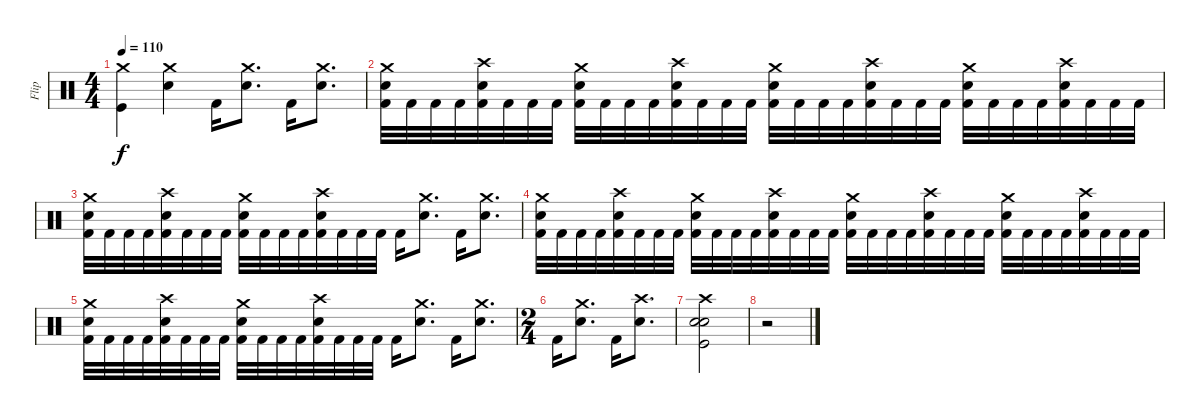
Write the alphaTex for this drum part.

\track ("Flip" "Flip") {instrument percussion}
\staff {score}
\articulation defaults
\ts (4 4)
\tempo 110
\clef neutral
\ks c
("Crash medium (hit)" "Kick (hit)").4{dy f} ("Crash medium (hit)" "Snare (hit) 2").4 "Kick (hit) 2".16 ("Crash medium (hit)" "Snare (hit) 2").8{d} "Kick (hit) 2".16 ("Crash medium (hit)" "Snare (hit) 2").8{d} |
("Crash medium (hit)" "Snare (hit) 2" "Kick (hit) 2").32 "Kick (hit) 2".32 "Kick (hit) 2".32 "Kick (hit) 2".32 ("Crash high (hit)" "Snare (hit) 2" "Kick (hit) 2").32 "Kick (hit) 2".32 "Kick (hit) 2".32 "Kick (hit) 2".32 ("Crash medium (hit)" "Snare (hit) 2" "Kick (hit) 2").32 "Kick (hit) 2".32 "Kick (hit) 2".32 "Kick (hit) 2".32 ("Crash high (hit)" "Snare (hit) 2" "Kick (hit) 2").32 "Kick (hit) 2".32 "Kick (hit) 2".32 "Kick (hit) 2".32 ("Crash medium (hit)" "Snare (hit) 2" "Kick (hit) 2").32 "Kick (hit) 2".32 "Kick (hit) 2".32 "Kick (hit) 2".32 ("Crash high (hit)" "Snare (hit) 2" "Kick (hit) 2").32 "Kick (hit) 2".32 "Kick (hit) 2".32 "Kick (hit) 2".32 ("Crash medium (hit)" "Snare (hit) 2" "Kick (hit) 2").32 "Kick (hit) 2".32 "Kick (hit) 2".32 "Kick (hit) 2".32 ("Crash high (hit)" "Snare (hit) 2" "Kick (hit) 2").32 "Kick (hit) 2".32 "Kick (hit) 2".32 "Kick (hit) 2".32 |
("Crash medium (hit)" "Snare (hit) 2" "Kick (hit) 2").32 "Kick (hit) 2".32 "Kick (hit) 2".32 "Kick (hit) 2".32 ("Crash high (hit)" "Snare (hit) 2" "Kick (hit) 2").32 "Kick (hit) 2".32 "Kick (hit) 2".32 "Kick (hit) 2".32 ("Crash medium (hit)" "Snare (hit) 2" "Kick (hit) 2").32 "Kick (hit) 2".32 "Kick (hit) 2".32 "Kick (hit) 2".32 ("Crash high (hit)" "Snare (hit) 2" "Kick (hit) 2").32 "Kick (hit) 2".32 "Kick (hit) 2".32 "Kick (hit) 2".32 "Kick (hit) 2".16 ("Crash medium (hit)" "Snare (hit) 2").8{d} "Kick (hit) 2".16 ("Crash medium (hit)" "Snare (hit) 2").8{d} |
("Crash medium (hit)" "Snare (hit) 2" "Kick (hit) 2").32 "Kick (hit) 2".32 "Kick (hit) 2".32 "Kick (hit) 2".32 ("Crash high (hit)" "Snare (hit) 2" "Kick (hit) 2").32 "Kick (hit) 2".32 "Kick (hit) 2".32 "Kick (hit) 2".32 ("Crash medium (hit)" "Snare (hit) 2" "Kick (hit) 2").32 "Kick (hit) 2".32 "Kick (hit) 2".32 "Kick (hit) 2".32 ("Crash high (hit)" "Snare (hit) 2" "Kick (hit) 2").32 "Kick (hit) 2".32 "Kick (hit) 2".32 "Kick (hit) 2".32 ("Crash medium (hit)" "Snare (hit) 2" "Kick (hit) 2").32 "Kick (hit) 2".32 "Kick (hit) 2".32 "Kick (hit) 2".32 ("Crash high (hit)" "Snare (hit) 2" "Kick (hit) 2").32 "Kick (hit) 2".32 "Kick (hit) 2".32 "Kick (hit) 2".32 ("Crash medium (hit)" "Snare (hit) 2" "Kick (hit) 2").32 "Kick (hit) 2".32 "Kick (hit) 2".32 "Kick (hit) 2".32 ("Crash high (hit)" "Snare (hit) 2" "Kick (hit) 2").32 "Kick (hit) 2".32 "Kick (hit) 2".32 "Kick (hit) 2".32 |
("Crash medium (hit)" "Snare (hit) 2" "Kick (hit) 2").32 "Kick (hit) 2".32 "Kick (hit) 2".32 "Kick (hit) 2".32 ("Crash high (hit)" "Snare (hit) 2" "Kick (hit) 2").32 "Kick (hit) 2".32 "Kick (hit) 2".32 "Kick (hit) 2".32 ("Crash medium (hit)" "Snare (hit) 2" "Kick (hit) 2").32 "Kick (hit) 2".32 "Kick (hit) 2".32 "Kick (hit) 2".32 ("Crash high (hit)" "Snare (hit) 2" "Kick (hit) 2").32 "Kick (hit) 2".32 "Kick (hit) 2".32 "Kick (hit) 2".32 "Kick (hit) 2".16 ("Crash medium (hit)" "Snare (hit) 2").8{d} "Kick (hit) 2".16 ("Crash medium (hit)" "Snare (hit) 2").8{d} |
\ts (2 4)
"Kick (hit) 2".16 ("Crash medium (hit)" "Snare (hit) 2").8{d} "Kick (hit) 2".16 ("Crash high (hit)" "Snare (hit) 2").8{d} |
("Crash high (hit)" "Snare (hit) 2" "Snare (hit) 2" "Kick (hit)").2 |
r.2
